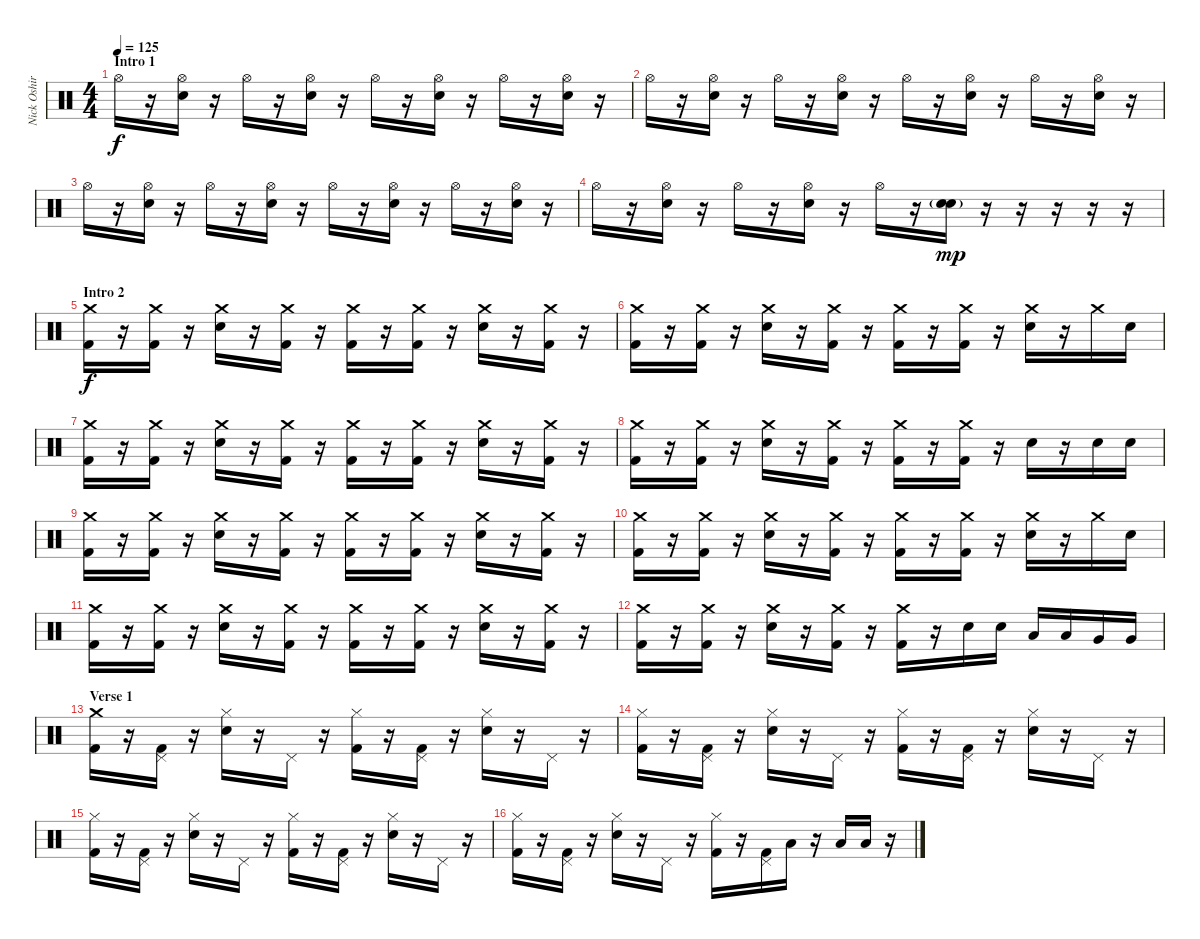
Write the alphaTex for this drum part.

\track ("Nick Oshiro - Drums" "Nick Oshir") {instrument percussion}
\staff {score}
\articulation defaults
\ts (4 4)
\section ("" "Intro 1")
\tempo 125
\clef neutral
\ks c "Hi-Hat (open)".16{dy f}
r.16 ("Hi-Hat (open)" "Snare (hit) 2").16 r.16 "Hi-Hat (open)".16 r.16 ("Hi-Hat (open)" "Snare (hit) 2").16 r.16 "Hi-Hat (open)".16 r.16 ("Hi-Hat (open)" "Snare (hit) 2").16 r.16 "Hi-Hat (open)".16 r.16 ("Hi-Hat (open)" "Snare (hit) 2").16 r.16 |
"Hi-Hat (open)".16 r.16 ("Hi-Hat (open)" "Snare (hit) 2").16 r.16 "Hi-Hat (open)".16 r.16 ("Hi-Hat (open)" "Snare (hit) 2").16 r.16 "Hi-Hat (open)".16 r.16 ("Hi-Hat (open)" "Snare (hit) 2").16 r.16 "Hi-Hat (open)".16 r.16 ("Hi-Hat (open)" "Snare (hit) 2").16 r.16 |
"Hi-Hat (open)".16 r.16 ("Hi-Hat (open)" "Snare (hit) 2").16 r.16 "Hi-Hat (open)".16 r.16 ("Hi-Hat (open)" "Snare (hit) 2").16 r.16 "Hi-Hat (open)".16 r.16 ("Hi-Hat (open)" "Snare (hit) 2").16 r.16 "Hi-Hat (open)".16 r.16 ("Hi-Hat (open)" "Snare (hit) 2").16 r.16 |
"Hi-Hat (open)".16 r.16 ("Hi-Hat (open)" "Snare (hit) 2").16 r.16 "Hi-Hat (open)".16 r.16 ("Hi-Hat (open)" "Snare (hit) 2").16 r.16 "Hi-Hat (open)".16 r.16 ("Snare (hit) 2"{g} "Snare (hit) 2").16{dy mp} r.16 r.16 r.16 r.16 r.16 |
\section ("" "Intro 2")
("Crash medium (hit)" "Kick (hit) 2").16{dy f} r.16 ("Crash medium (hit)" "Kick (hit) 2").16 r.16 ("Crash medium (hit)" "Snare (hit) 2").16 r.16 ("Crash medium (hit)" "Kick (hit) 2").16 r.16 ("Crash medium (hit)" "Kick (hit) 2").16 r.16 ("Crash medium (hit)" "Kick (hit) 2").16 r.16 ("Crash medium (hit)" "Snare (hit) 2").16 r.16 ("Crash medium (hit)" "Kick (hit) 2").16 r.16 |
("Crash medium (hit)" "Kick (hit) 2").16 r.16 ("Crash medium (hit)" "Kick (hit) 2").16 r.16 ("Crash medium (hit)" "Snare (hit) 2").16 r.16 ("Crash medium (hit)" "Kick (hit) 2").16 r.16 ("Crash medium (hit)" "Kick (hit) 2").16 r.16 ("Crash medium (hit)" "Kick (hit) 2").16 r.16 ("Crash medium (hit)" "Snare (hit) 2").16 r.16 "Crash medium (hit)".16 "Snare (hit) 2".16 |
("Crash medium (hit)" "Kick (hit) 2").16 r.16 ("Crash medium (hit)" "Kick (hit) 2").16 r.16 ("Crash medium (hit)" "Snare (hit) 2").16 r.16 ("Crash medium (hit)" "Kick (hit) 2").16 r.16 ("Crash medium (hit)" "Kick (hit) 2").16 r.16 ("Crash medium (hit)" "Kick (hit) 2").16 r.16 ("Crash medium (hit)" "Snare (hit) 2").16 r.16 ("Crash medium (hit)" "Kick (hit) 2").16 r.16 |
("Crash medium (hit)" "Kick (hit) 2").16 r.16 ("Crash medium (hit)" "Kick (hit) 2").16 r.16 ("Crash medium (hit)" "Snare (hit) 2").16 r.16 ("Crash medium (hit)" "Kick (hit) 2").16 r.16 ("Crash medium (hit)" "Kick (hit) 2").16 r.16 ("Crash medium (hit)" "Kick (hit) 2").16 r.16 "Snare (hit) 2".16 r.16 "Snare (hit) 2".16 "Snare (hit) 2".16 |
("Crash medium (hit)" "Kick (hit) 2").16 r.16 ("Crash medium (hit)" "Kick (hit) 2").16 r.16 ("Crash medium (hit)" "Snare (hit) 2").16 r.16 ("Crash medium (hit)" "Kick (hit) 2").16 r.16 ("Crash medium (hit)" "Kick (hit) 2").16 r.16 ("Crash medium (hit)" "Kick (hit) 2").16 r.16 ("Crash medium (hit)" "Snare (hit) 2").16 r.16 ("Crash medium (hit)" "Kick (hit) 2").16 r.16 |
("Crash medium (hit)" "Kick (hit) 2").16 r.16 ("Crash medium (hit)" "Kick (hit) 2").16 r.16 ("Crash medium (hit)" "Snare (hit) 2").16 r.16 ("Crash medium (hit)" "Kick (hit) 2").16 r.16 ("Crash medium (hit)" "Kick (hit) 2").16 r.16 ("Crash medium (hit)" "Kick (hit) 2").16 r.16 ("Crash medium (hit)" "Snare (hit) 2").16 r.16 "Crash medium (hit)".16 "Snare (hit) 2".16 |
("Crash medium (hit)" "Kick (hit) 2").16 r.16 ("Crash medium (hit)" "Kick (hit) 2").16 r.16 ("Crash medium (hit)" "Snare (hit) 2").16 r.16 ("Crash medium (hit)" "Kick (hit) 2").16 r.16 ("Crash medium (hit)" "Kick (hit) 2").16 r.16 ("Crash medium (hit)" "Kick (hit) 2").16 r.16 ("Crash medium (hit)" "Snare (hit) 2").16 r.16 ("Crash medium (hit)" "Kick (hit) 2").16 r.16 |
("Crash medium (hit)" "Kick (hit) 2").16 r.16 ("Crash medium (hit)" "Kick (hit) 2").16 r.16 ("Crash medium (hit)" "Snare (hit) 2").16 r.16 ("Crash medium (hit)" "Kick (hit) 2").16 r.16 ("Crash medium (hit)" "Kick (hit) 2").16 r.16 "Snare (hit) 2".16 "Snare (hit) 2".16 "Low Tom (hit)".16 "Low Tom (hit)".16 "Very Low Tom (hit)".16 "Very Low Tom (hit)".16 |
\section ("" "Verse 1")
("Crash medium (hit)" "Kick (hit) 2").16 r.16 ("Pedal Hi-Hat (hit)" "Kick (hit) 2").16 r.16 ("Hi-Hat (closed)" "Snare (hit) 2").16 r.16 "Pedal Hi-Hat (hit)".16 r.16 ("Hi-Hat (closed)" "Kick (hit) 2").16 r.16 ("Pedal Hi-Hat (hit)" "Kick (hit) 2").16 r.16 ("Hi-Hat (closed)" "Snare (hit) 2").16 r.16 "Pedal Hi-Hat (hit)".16 r.16 |
("Hi-Hat (closed)" "Kick (hit) 2").16 r.16 ("Pedal Hi-Hat (hit)" "Kick (hit) 2").16 r.16 ("Hi-Hat (closed)" "Snare (hit) 2").16 r.16 "Pedal Hi-Hat (hit)".16 r.16 ("Hi-Hat (closed)" "Kick (hit) 2").16 r.16 ("Pedal Hi-Hat (hit)" "Kick (hit) 2").16 r.16 ("Hi-Hat (closed)" "Snare (hit) 2").16 r.16 "Pedal Hi-Hat (hit)".16 r.16 |
("Hi-Hat (closed)" "Kick (hit) 2").16 r.16 ("Pedal Hi-Hat (hit)" "Kick (hit) 2").16 r.16 ("Hi-Hat (closed)" "Snare (hit) 2").16 r.16 "Pedal Hi-Hat (hit)".16 r.16 ("Hi-Hat (closed)" "Kick (hit) 2").16 r.16 ("Pedal Hi-Hat (hit)" "Kick (hit) 2").16 r.16 ("Hi-Hat (closed)" "Snare (hit) 2").16 r.16 "Pedal Hi-Hat (hit)".16 r.16 |
("Hi-Hat (closed)" "Kick (hit) 2").16 r.16 ("Pedal Hi-Hat (hit)" "Kick (hit) 2").16 r.16 ("Hi-Hat (closed)" "Snare (hit) 2").16 r.16 "Pedal Hi-Hat (hit)".16 r.16 ("Hi-Hat (closed)" "Kick (hit) 2").16 r.16 ("Pedal Hi-Hat (hit)" "Kick (hit) 2").16 "Low Floor Tom (hit)".16 r.16 "Low Floor Tom (hit)".16 "Low Floor Tom (hit)".16 r.16
